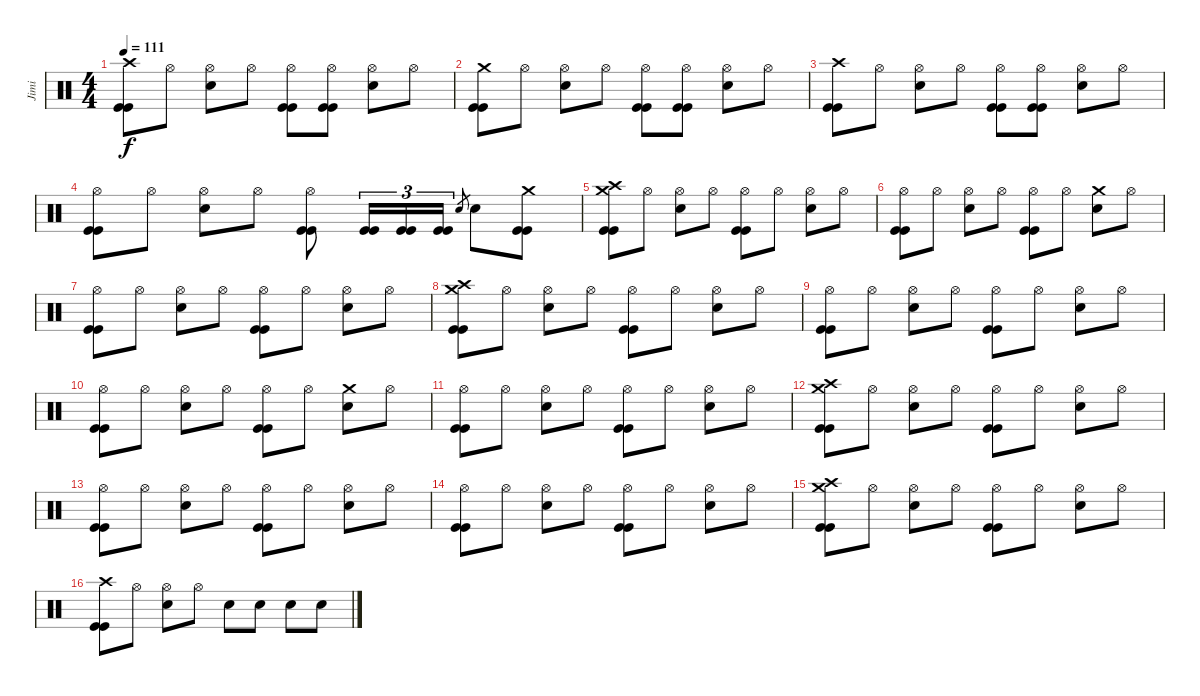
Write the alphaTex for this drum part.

\track ("Jimi" "Jimi") {instrument percussion}
\staff {score}
\articulation defaults
\ts (4 4)
\tempo 111
\clef neutral
\ks c
("Crash high (hit)" "Kick (hit)" "Kick (hit)").8{dy f} "Hi-Hat (open)".8 ("Hi-Hat (open)" "Electric Snare (hit)").8 "Hi-Hat (open)".8 ("Hi-Hat (open)" "Kick (hit)" "Kick (hit)").8 ("Hi-Hat (open)" "Kick (hit)" "Kick (hit)").8 ("Hi-Hat (open)" "Electric Snare (hit)").8 "Hi-Hat (open)".8 |
("Crash medium (hit)" "Kick (hit)" "Kick (hit)").8 "Hi-Hat (open)".8 ("Hi-Hat (open)" "Electric Snare (hit)").8 "Hi-Hat (open)".8 ("Hi-Hat (open)" "Kick (hit)" "Kick (hit)").8 ("Hi-Hat (open)" "Kick (hit)" "Kick (hit)").8 ("Hi-Hat (open)" "Electric Snare (hit)").8 "Hi-Hat (open)".8 |
("Crash high (hit)" "Kick (hit)" "Kick (hit)").8 "Hi-Hat (open)".8 ("Hi-Hat (open)" "Electric Snare (hit)").8 "Hi-Hat (open)".8 ("Hi-Hat (open)" "Kick (hit)" "Kick (hit)").8 ("Hi-Hat (open)" "Kick (hit)" "Kick (hit)").8 ("Hi-Hat (open)" "Electric Snare (hit)").8 "Hi-Hat (open)".8 |
("Hi-Hat (open)" "Kick (hit)" "Kick (hit)").8 "Hi-Hat (open)".8 ("Hi-Hat (open)" "Electric Snare (hit)").8 "Hi-Hat (open)".8 ("Hi-Hat (open)" "Kick (hit)" "Kick (hit)").8 ("Kick (hit)" "Kick (hit)").16{tu (3 2)} ("Kick (hit)" "Kick (hit)").16{tu (3 2)} ("Kick (hit)" "Kick (hit)").16{tu (3 2)} "Electric Snare (hit)".8{gr} "Electric Snare (hit)".8 ("Crash medium (hit)" "Kick (hit)" "Kick (hit)").8 |
("Crash high (hit)" "Crash medium (hit)" "Kick (hit)" "Kick (hit)").8 "Hi-Hat (open)".8 ("Hi-Hat (open)" "Electric Snare (hit)").8 "Hi-Hat (open)".8 ("Hi-Hat (open)" "Kick (hit)" "Kick (hit)").8 "Hi-Hat (open)".8 ("Hi-Hat (open)" "Electric Snare (hit)").8 "Hi-Hat (open)".8 |
("Hi-Hat (open)" "Kick (hit)" "Kick (hit)").8 "Hi-Hat (open)".8 ("Hi-Hat (open)" "Electric Snare (hit)").8 "Hi-Hat (open)".8 ("Hi-Hat (open)" "Kick (hit)" "Kick (hit)").8 "Hi-Hat (open)".8 ("Crash medium (hit)" "Electric Snare (hit)").8 "Hi-Hat (open)".8 |
("Hi-Hat (open)" "Kick (hit)" "Kick (hit)").8 "Hi-Hat (open)".8 ("Hi-Hat (open)" "Electric Snare (hit)").8 "Hi-Hat (open)".8 ("Hi-Hat (open)" "Kick (hit)" "Kick (hit)").8 "Hi-Hat (open)".8 ("Hi-Hat (open)" "Electric Snare (hit)").8 "Hi-Hat (open)".8 |
("Crash high (hit)" "Crash medium (hit)" "Kick (hit)" "Kick (hit)").8 "Hi-Hat (open)".8 ("Hi-Hat (open)" "Electric Snare (hit)").8 "Hi-Hat (open)".8 ("Hi-Hat (open)" "Kick (hit)" "Kick (hit)").8 "Hi-Hat (open)".8 ("Hi-Hat (open)" "Electric Snare (hit)").8 "Hi-Hat (open)".8 |
("Hi-Hat (open)" "Kick (hit)" "Kick (hit)").8 "Hi-Hat (open)".8 ("Hi-Hat (open)" "Electric Snare (hit)").8 "Hi-Hat (open)".8 ("Hi-Hat (open)" "Kick (hit)" "Kick (hit)").8 "Hi-Hat (open)".8 ("Hi-Hat (open)" "Electric Snare (hit)").8 "Hi-Hat (open)".8 |
("Hi-Hat (open)" "Kick (hit)" "Kick (hit)").8 "Hi-Hat (open)".8 ("Hi-Hat (open)" "Electric Snare (hit)").8 "Hi-Hat (open)".8 ("Hi-Hat (open)" "Kick (hit)" "Kick (hit)").8 "Hi-Hat (open)".8 ("Crash medium (hit)" "Electric Snare (hit)").8 "Hi-Hat (open)".8 |
("Hi-Hat (open)" "Kick (hit)" "Kick (hit)").8 "Hi-Hat (open)".8 ("Hi-Hat (open)" "Electric Snare (hit)").8 "Hi-Hat (open)".8 ("Hi-Hat (open)" "Kick (hit)" "Kick (hit)").8 "Hi-Hat (open)".8 ("Hi-Hat (open)" "Electric Snare (hit)").8 "Hi-Hat (open)".8 |
("Crash high (hit)" "Crash medium (hit)" "Kick (hit)" "Kick (hit)").8 "Hi-Hat (open)".8 ("Hi-Hat (open)" "Electric Snare (hit)").8 "Hi-Hat (open)".8 ("Hi-Hat (open)" "Kick (hit)" "Kick (hit)").8 "Hi-Hat (open)".8 ("Hi-Hat (open)" "Electric Snare (hit)").8 "Hi-Hat (open)".8 |
("Hi-Hat (open)" "Kick (hit)" "Kick (hit)").8 "Hi-Hat (open)".8 ("Hi-Hat (open)" "Electric Snare (hit)").8 "Hi-Hat (open)".8 ("Hi-Hat (open)" "Kick (hit)" "Kick (hit)").8 "Hi-Hat (open)".8 ("Hi-Hat (open)" "Electric Snare (hit)").8 "Hi-Hat (open)".8 |
("Hi-Hat (open)" "Kick (hit)" "Kick (hit)").8 "Hi-Hat (open)".8 ("Hi-Hat (open)" "Electric Snare (hit)").8 "Hi-Hat (open)".8 ("Hi-Hat (open)" "Kick (hit)" "Kick (hit)").8 "Hi-Hat (open)".8 ("Hi-Hat (open)" "Electric Snare (hit)").8 "Hi-Hat (open)".8 |
("Crash high (hit)" "Crash medium (hit)" "Kick (hit)" "Kick (hit)").8 "Hi-Hat (open)".8 ("Hi-Hat (open)" "Electric Snare (hit)").8 "Hi-Hat (open)".8 ("Hi-Hat (open)" "Kick (hit)" "Kick (hit)").8 "Hi-Hat (open)".8 ("Hi-Hat (open)" "Electric Snare (hit)").8 "Hi-Hat (open)".8 |
("Crash high (hit)" "Kick (hit)" "Kick (hit)").8 "Hi-Hat (open)".8 ("Hi-Hat (open)" "Electric Snare (hit)").8 "Hi-Hat (open)".8 "Electric Snare (hit)".8 "Electric Snare (hit)".8 "Electric Snare (hit)".8 "Electric Snare (hit)".8
